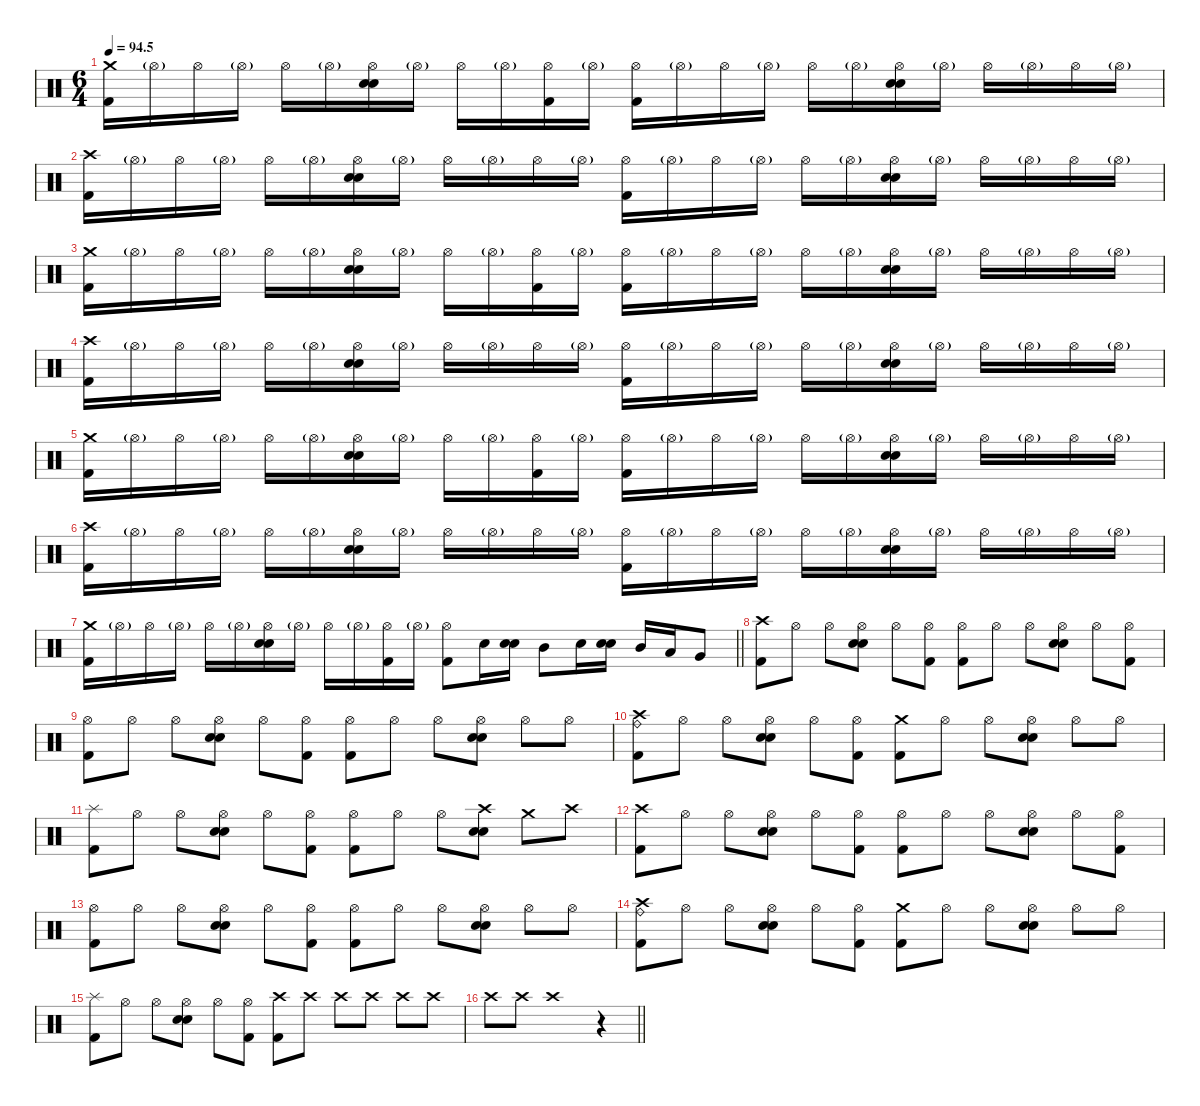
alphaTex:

\defaultSystemsLayout 4
\hideDynamics
\bracketExtendMode nobrackets
\singleTrackTrackNamePolicy hidden
\multiTrackTrackNamePolicy hidden
\firstSystemTrackNameMode fullname
\firstSystemTrackNameOrientation horizontal
\otherSystemsTrackNameOrientation horizontal
\track ("Drums" "drm.") {defaultSystemsLayout 2 instrument percussion}
\staff {score}
\articulation defaults
\ts (6 4)
\tempo
94.5
\accidentals auto
\clef neutral
\ottava regular
\simile none
\ks c
("Crash medium (hit)" "Kick (hit) 2").16{dy mf beam Down} "Hi-Hat (open)"{g}.16{beam Down} "Hi-Hat (open)".16{beam Down} "Hi-Hat (open)"{g}.16{beam Down} "Hi-Hat (open)".16{beam Down} "Hi-Hat (open)"{g}.16{beam Down} ("Hi-Hat (open)" "Snare (hit) 2" "Metronome (bell)").16{beam Down} "Hi-Hat (open)"{g}.16{beam Down} "Hi-Hat (open)".16{beam Down} "Hi-Hat (open)"{g}.16{beam Down} ("Hi-Hat (open)" "Kick (hit) 2").16{beam Down} "Hi-Hat (open)"{g}.16{beam Down} ("Hi-Hat (open)" "Kick (hit) 2").16{beam Down} "Hi-Hat (open)"{g}.16{beam Down} "Hi-Hat (open)".16{beam Down} "Hi-Hat (open)"{g}.16{beam Down} "Hi-Hat (open)".16{beam Down} "Hi-Hat (open)"{g}.16{beam Down} ("Hi-Hat (open)" "Snare (hit) 2" "Metronome (bell)").16{beam Down} "Hi-Hat (open)"{g}.16{beam Down} "Hi-Hat (open)".16{beam Down} "Hi-Hat (open)"{g}.16{beam Down} "Hi-Hat (open)".16{beam Down} "Hi-Hat (open)"{g}.16{beam Down} |
("Crash high (hit)" "Kick (hit) 2").16{dy fff beam Down} "Hi-Hat (open)"{g}.16{dy mf beam Down} "Hi-Hat (open)".16{beam Down} "Hi-Hat (open)"{g}.16{beam Down} "Hi-Hat (open)".16{beam Down} "Hi-Hat (open)"{g}.16{beam Down} ("Hi-Hat (open)" "Snare (hit) 2" "Metronome (bell)").16{beam Down} "Hi-Hat (open)"{g}.16{beam Down} "Hi-Hat (open)".16{beam Down} "Hi-Hat (open)"{g}.16{beam Down} "Hi-Hat (open)".16{beam Down} "Hi-Hat (open)"{g}.16{beam Down} ("Hi-Hat (open)" "Kick (hit) 2").16{beam Down} "Hi-Hat (open)"{g}.16{beam Down} "Hi-Hat (open)".16{beam Down} "Hi-Hat (open)"{g}.16{beam Down} "Hi-Hat (open)".16{beam Down} "Hi-Hat (open)"{g}.16{beam Down} ("Hi-Hat (open)" "Snare (hit) 2" "Metronome (bell)").16{beam Down} "Hi-Hat (open)"{g}.16{beam Down} "Hi-Hat (open)".16{beam Down} "Hi-Hat (open)"{g}.16{beam Down} "Hi-Hat (open)".16{beam Down} "Hi-Hat (open)"{g}.16{beam Down} |
("Crash medium (hit)" "Kick (hit) 2").16{beam Down} "Hi-Hat (open)"{g}.16{beam Down} "Hi-Hat (open)".16{beam Down} "Hi-Hat (open)"{g}.16{beam Down} "Hi-Hat (open)".16{beam Down} "Hi-Hat (open)"{g}.16{beam Down} ("Hi-Hat (open)" "Snare (hit) 2" "Metronome (bell)").16{beam Down} "Hi-Hat (open)"{g}.16{beam Down} "Hi-Hat (open)".16{beam Down} "Hi-Hat (open)"{g}.16{beam Down} ("Hi-Hat (open)" "Kick (hit) 2").16{beam Down} "Hi-Hat (open)"{g}.16{beam Down} ("Hi-Hat (open)" "Kick (hit) 2").16{beam Down} "Hi-Hat (open)"{g}.16{beam Down} "Hi-Hat (open)".16{beam Down} "Hi-Hat (open)"{g}.16{beam Down} "Hi-Hat (open)".16{beam Down} "Hi-Hat (open)"{g}.16{beam Down} ("Hi-Hat (open)" "Snare (hit) 2" "Metronome (bell)").16{beam Down} "Hi-Hat (open)"{g}.16{beam Down} "Hi-Hat (open)".16{beam Down} "Hi-Hat (open)"{g}.16{beam Down} "Hi-Hat (open)".16{beam Down} "Hi-Hat (open)"{g}.16{beam Down} |
("Crash high (hit)" "Kick (hit) 2").16{dy fff beam Down} "Hi-Hat (open)"{g}.16{dy mf beam Down} "Hi-Hat (open)".16{beam Down} "Hi-Hat (open)"{g}.16{beam Down} "Hi-Hat (open)".16{beam Down} "Hi-Hat (open)"{g}.16{beam Down} ("Hi-Hat (open)" "Snare (hit) 2" "Metronome (bell)").16{beam Down} "Hi-Hat (open)"{g}.16{beam Down} "Hi-Hat (open)".16{beam Down} "Hi-Hat (open)"{g}.16{beam Down} "Hi-Hat (open)".16{beam Down} "Hi-Hat (open)"{g}.16{beam Down} ("Hi-Hat (open)" "Kick (hit) 2").16{beam Down} "Hi-Hat (open)"{g}.16{beam Down} "Hi-Hat (open)".16{beam Down} "Hi-Hat (open)"{g}.16{beam Down} "Hi-Hat (open)".16{beam Down} "Hi-Hat (open)"{g}.16{beam Down} ("Hi-Hat (open)" "Snare (hit) 2" "Metronome (bell)").16{beam Down} "Hi-Hat (open)"{g}.16{beam Down} "Hi-Hat (open)".16{beam Down} "Hi-Hat (open)"{g}.16{beam Down} "Hi-Hat (open)".16{beam Down} "Hi-Hat (open)"{g}.16{beam Down} |
("Crash medium (hit)" "Kick (hit) 2").16{beam Down} "Hi-Hat (open)"{g}.16{beam Down} "Hi-Hat (open)".16{beam Down} "Hi-Hat (open)"{g}.16{beam Down} "Hi-Hat (open)".16{beam Down} "Hi-Hat (open)"{g}.16{beam Down} ("Hi-Hat (open)" "Snare (hit) 2" "Metronome (bell)").16{beam Down} "Hi-Hat (open)"{g}.16{beam Down} "Hi-Hat (open)".16{beam Down} "Hi-Hat (open)"{g}.16{beam Down} ("Hi-Hat (open)" "Kick (hit) 2").16{beam Down} "Hi-Hat (open)"{g}.16{beam Down} ("Hi-Hat (open)" "Kick (hit) 2").16{beam Down} "Hi-Hat (open)"{g}.16{beam Down} "Hi-Hat (open)".16{beam Down} "Hi-Hat (open)"{g}.16{beam Down} "Hi-Hat (open)".16{beam Down} "Hi-Hat (open)"{g}.16{beam Down} ("Hi-Hat (open)" "Snare (hit) 2" "Metronome (bell)").16{beam Down} "Hi-Hat (open)"{g}.16{beam Down} "Hi-Hat (open)".16{beam Down} "Hi-Hat (open)"{g}.16{beam Down} "Hi-Hat (open)".16{beam Down} "Hi-Hat (open)"{g}.16{beam Down} |
("Crash high (hit)" "Kick (hit) 2").16{dy fff beam Down} "Hi-Hat (open)"{g}.16{dy mf beam Down} "Hi-Hat (open)".16{beam Down} "Hi-Hat (open)"{g}.16{beam Down} "Hi-Hat (open)".16{beam Down} "Hi-Hat (open)"{g}.16{beam Down} ("Hi-Hat (open)" "Snare (hit) 2" "Metronome (bell)").16{beam Down} "Hi-Hat (open)"{g}.16{beam Down} "Hi-Hat (open)".16{beam Down} "Hi-Hat (open)"{g}.16{beam Down} "Hi-Hat (open)".16{beam Down} "Hi-Hat (open)"{g}.16{beam Down} ("Hi-Hat (open)" "Kick (hit) 2").16{beam Down} "Hi-Hat (open)"{g}.16{beam Down} "Hi-Hat (open)".16{beam Down} "Hi-Hat (open)"{g}.16{beam Down} "Hi-Hat (open)".16{beam Down} "Hi-Hat (open)"{g}.16{beam Down} ("Hi-Hat (open)" "Snare (hit) 2" "Metronome (bell)").16{beam Down} "Hi-Hat (open)"{g}.16{beam Down} "Hi-Hat (open)".16{beam Down} "Hi-Hat (open)"{g}.16{beam Down} "Hi-Hat (open)".16{beam Down} "Hi-Hat (open)"{g}.16{beam Down} |
\barLineRight lightlight
("Crash medium (hit)" "Kick (hit) 2").16{beam Down} "Hi-Hat (open)"{g}.16{beam Down} "Hi-Hat (open)".16{beam Down} "Hi-Hat (open)"{g}.16{beam Down} "Hi-Hat (open)".16{beam Down} "Hi-Hat (open)"{g}.16{beam Down} ("Hi-Hat (open)" "Snare (hit) 2" "Metronome (bell)").16{beam Down} "Hi-Hat (open)"{g}.16{beam Down} "Hi-Hat (open)".16{beam Down} "Hi-Hat (open)"{g}.16{beam Down} ("Hi-Hat (open)" "Kick (hit) 2").16{beam Down} "Hi-Hat (open)"{g}.16{beam Down} ("Hi-Hat (open)" "Kick (hit) 2").8{beam Down} "Snare (hit) 2".16{dy f beam Down} ("Snare (hit) 2" "Metronome (bell)").16{beam Down} "Mid Tom (hit)".8{dy fff beam Down} "Snare (hit) 2".16{dy f beam Up} ("Snare (hit) 2" "Metronome (bell)").16{beam Up} "Mid Tom (hit)".16{dy fff beam Up} "Low Tom (hit)".16{dy f beam Up} "Very Low Tom (hit)".8{beam Up} |
("Crash high (hit)" "Kick (hit) 2").8{dy fff beam Down} "Hi-Hat (open)".8{dy mf beam Down} "Hi-Hat (open)".8{beam Down} ("Hi-Hat (open)" "Snare (hit) 2" "Metronome (bell)").8{beam Down} "Hi-Hat (open)".8{beam Down} ("Hi-Hat (open)" "Kick (hit) 2").8{beam Down} ("Hi-Hat (open)" "Kick (hit) 2").8{beam Down} "Hi-Hat (open)".8{beam Down} "Hi-Hat (open)".8{beam Down} ("Hi-Hat (open)" "Snare (hit) 2" "Metronome (bell)").8{beam Down} "Hi-Hat (open)".8{beam Down} ("Hi-Hat (open)" "Kick (hit) 2").8{beam Down} |
("Hi-Hat (open)" "Kick (hit) 2").8{beam Down} "Hi-Hat (open)".8{beam Down} "Hi-Hat (open)".8{beam Down} ("Hi-Hat (open)" "Snare (hit) 2" "Metronome (bell)").8{beam Down} "Hi-Hat (open)".8{beam Down} ("Hi-Hat (open)" "Kick (hit) 2").8{beam Down} ("Hi-Hat (open)" "Kick (hit) 2").8{beam Down} "Hi-Hat (open)".8{beam Down} "Hi-Hat (open)".8{beam Down} ("Hi-Hat (open)" "Snare (hit) 2" "Metronome (bell)").8{beam Down} "Hi-Hat (open)".8{beam Down} "Hi-Hat (open)".8{beam Down} |
("Crash high (hit)" "Ride (bell)" "Kick (hit) 2").8{dy fff beam Down} "Hi-Hat (open)".8{dy mf beam Down} "Hi-Hat (open)".8{beam Down} ("Hi-Hat (open)" "Snare (hit) 2" "Metronome (bell)").8{beam Down} "Hi-Hat (open)".8{beam Down} ("Hi-Hat (open)" "Kick (hit) 2").8{beam Down} ("Crash medium (hit)" "Kick (hit) 2").8{dy fff beam Down} "Hi-Hat (open)".8{dy mf beam Down} "Hi-Hat (open)".8{beam Down} ("Hi-Hat (open)" "Snare (hit) 2" "Metronome (bell)").8{beam Down} "Hi-Hat (open)".8{beam Down} "Hi-Hat (open)".8{beam Down} |
("Splash (hit)" "Kick (hit) 2").8{dy ff beam Down} "Hi-Hat (open)".8{dy mf beam Down} "Hi-Hat (open)".8{beam Down} ("Hi-Hat (open)" "Snare (hit) 2" "Metronome (bell)").8{beam Down} "Hi-Hat (open)".8{beam Down} ("Hi-Hat (open)" "Kick (hit) 2").8{beam Down} ("Hi-Hat (open)" "Kick (hit) 2").8{beam Down} "Hi-Hat (open)".8{beam Down} "Hi-Hat (open)".8{beam Down} ("Crash high (hit)" "Snare (hit) 2" "Metronome (bell)").8{dy f beam Down} "Crash medium (hit)".8{beam Down} "Crash high (hit)".8{beam Down} |
("Crash high (hit)" "Kick (hit) 2").8{dy fff beam Down} "Hi-Hat (open)".8{dy mf beam Down} "Hi-Hat (open)".8{beam Down} ("Hi-Hat (open)" "Snare (hit) 2" "Metronome (bell)").8{beam Down} "Hi-Hat (open)".8{beam Down} ("Hi-Hat (open)" "Kick (hit) 2").8{beam Down} ("Hi-Hat (open)" "Kick (hit) 2").8{beam Down} "Hi-Hat (open)".8{beam Down} "Hi-Hat (open)".8{beam Down} ("Hi-Hat (open)" "Snare (hit) 2" "Metronome (bell)").8{beam Down} "Hi-Hat (open)".8{beam Down} ("Hi-Hat (open)" "Kick (hit) 2").8{beam Down} |
("Hi-Hat (open)" "Kick (hit) 2").8{beam Down} "Hi-Hat (open)".8{beam Down} "Hi-Hat (open)".8{beam Down} ("Hi-Hat (open)" "Snare (hit) 2" "Metronome (bell)").8{beam Down} "Hi-Hat (open)".8{beam Down} ("Hi-Hat (open)" "Kick (hit) 2").8{beam Down} ("Hi-Hat (open)" "Kick (hit) 2").8{beam Down} "Hi-Hat (open)".8{beam Down} "Hi-Hat (open)".8{beam Down} ("Hi-Hat (open)" "Snare (hit) 2" "Metronome (bell)").8{beam Down} "Hi-Hat (open)".8{beam Down} "Hi-Hat (open)".8{beam Down} |
("Crash high (hit)" "Ride (bell)" "Kick (hit) 2").8{dy ff beam Down} "Hi-Hat (open)".8{dy mf beam Down} "Hi-Hat (open)".8{beam Down} ("Hi-Hat (open)" "Snare (hit) 2" "Metronome (bell)").8{beam Down} "Hi-Hat (open)".8{beam Down} ("Hi-Hat (open)" "Kick (hit) 2").8{beam Down} ("Crash medium (hit)" "Kick (hit) 2").8{dy fff beam Down} "Hi-Hat (open)".8{dy mf beam Down} "Hi-Hat (open)".8{beam Down} ("Hi-Hat (open)" "Snare (hit) 2" "Metronome (bell)").8{beam Down} "Hi-Hat (open)".8{beam Down} "Hi-Hat (open)".8{beam Down} |
("Splash (hit)" "Kick (hit) 2").8{dy ff beam Down} "Hi-Hat (open)".8{dy mf beam Down} "Hi-Hat (open)".8{beam Down} ("Hi-Hat (open)" "Snare (hit) 2" "Metronome (bell)").8{beam Down} "Hi-Hat (open)".8{beam Down} ("Hi-Hat (open)" "Kick (hit) 2").8{beam Down} ("Crash high (hit)" "Kick (hit) 2").8{dy fff beam Down} "Crash high (hit)".8{dy mf beam Down} "Crash high (hit)".8{dy mp beam Down} "Crash high (hit)".8{dy p beam Down} "Crash high (hit)".8{dy pp beam Down} "Crash high (hit)".8{beam Down} |
\barLineRight lightlight "Crash high (hit)".8{dy ppp beam Down} "Crash high (hit)".8{beam Down} "Crash high (hit)".1{beam Down}
r.4{beam Down}
